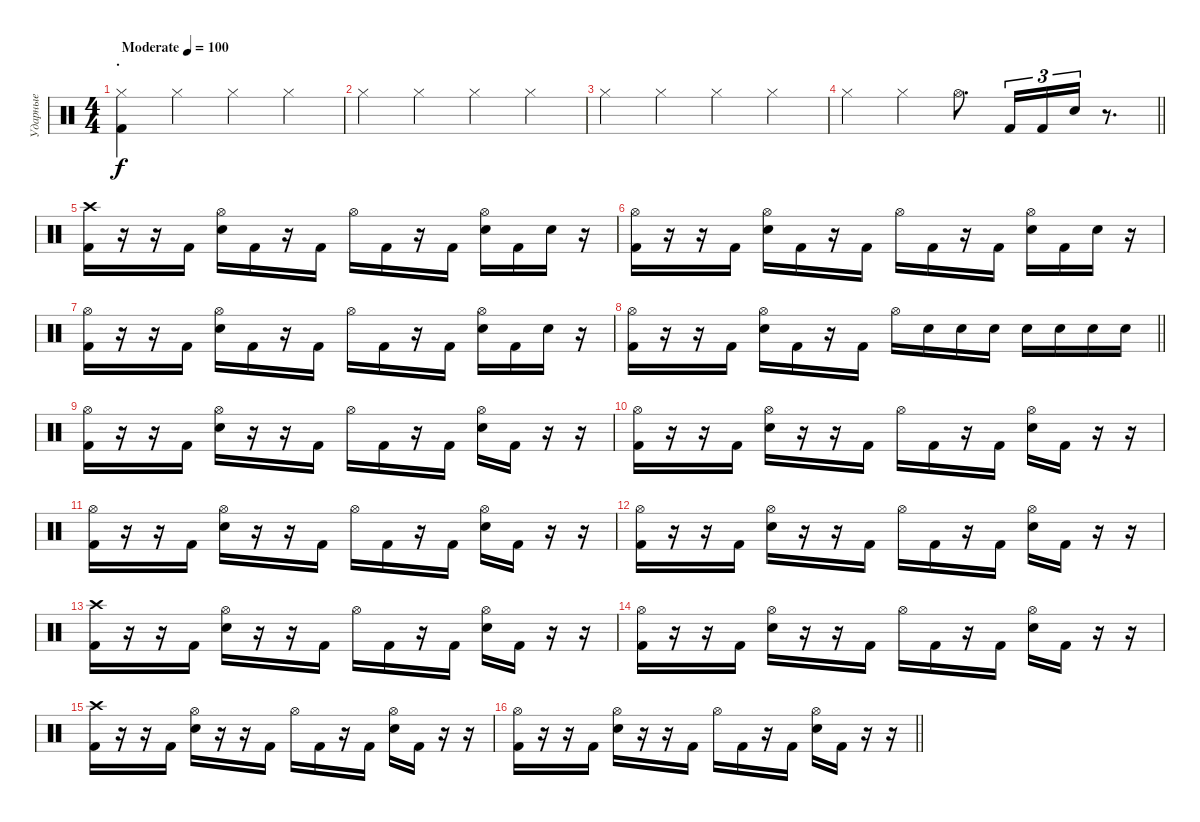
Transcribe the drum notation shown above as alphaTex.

\track ("Ударные" "Ударные") {instrument percussion}
\staff {score}
\articulation defaults
\ts (4 4)
\section ("" ".")
\tempo (100 "Moderate")
\clef neutral
\ks c
("Hi-Hat (closed)" "Kick (hit) 2").4{dy f} "Hi-Hat (closed)".4 "Hi-Hat (closed)".4 "Hi-Hat (closed)".4 |
"Hi-Hat (closed)".4 "Hi-Hat (closed)".4 "Hi-Hat (closed)".4 "Hi-Hat (closed)".4 |
"Hi-Hat (closed)".4 "Hi-Hat (closed)".4 "Hi-Hat (closed)".4 "Hi-Hat (closed)".4 |
\barLineRight lightlight "Hi-Hat (closed)".4 "Hi-Hat (closed)".4 "Hi-Hat (open)".8{d} "Kick (hit) 2".16{tu (3 2)} "Kick (hit) 2".16{tu (3 2)} "Electric Snare (hit)".16{tu (3 2)}
r.8{d} |
("Crash high (hit)" "Kick (hit) 2").16 r.16 r.16 "Kick (hit) 2".16 ("Hi-Hat (open)" "Electric Snare (hit)").16 "Kick (hit) 2".16 r.16 "Kick (hit) 2".16 "Hi-Hat (open)".16 "Kick (hit) 2".16 r.16 "Kick (hit) 2".16 ("Hi-Hat (open)" "Electric Snare (hit)").16 "Kick (hit) 2".16 "Electric Snare (hit)".16 r.16 |
("Hi-Hat (open)" "Kick (hit) 2").16 r.16 r.16 "Kick (hit) 2".16 ("Hi-Hat (open)" "Electric Snare (hit)").16 "Kick (hit) 2".16 r.16 "Kick (hit) 2".16 "Hi-Hat (open)".16 "Kick (hit) 2".16 r.16 "Kick (hit) 2".16 ("Hi-Hat (open)" "Electric Snare (hit)").16 "Kick (hit) 2".16 "Electric Snare (hit)".16 r.16 |
("Hi-Hat (open)" "Kick (hit) 2").16 r.16 r.16 "Kick (hit) 2".16 ("Hi-Hat (open)" "Electric Snare (hit)").16 "Kick (hit) 2".16 r.16 "Kick (hit) 2".16 "Hi-Hat (open)".16 "Kick (hit) 2".16 r.16 "Kick (hit) 2".16 ("Hi-Hat (open)" "Electric Snare (hit)").16 "Kick (hit) 2".16 "Electric Snare (hit)".16 r.16 |
\barLineRight lightlight
("Hi-Hat (open)" "Kick (hit) 2").16 r.16 r.16 "Kick (hit) 2".16 ("Hi-Hat (open)" "Electric Snare (hit)").16 "Kick (hit) 2".16 r.16 "Kick (hit) 2".16 "Hi-Hat (open)".16 "Electric Snare (hit)".16 "Electric Snare (hit)".16 "Electric Snare (hit)".16 "Electric Snare (hit)".16 "Electric Snare (hit)".16 "Electric Snare (hit)".16 "Electric Snare (hit)".16 |
("Hi-Hat (open)" "Kick (hit) 2").16 r.16 r.16 "Kick (hit) 2".16 ("Hi-Hat (open)" "Electric Snare (hit)").16 r.16 r.16 "Kick (hit) 2".16 "Hi-Hat (open)".16 "Kick (hit) 2".16 r.16 "Kick (hit) 2".16 ("Hi-Hat (open)" "Electric Snare (hit)").16 "Kick (hit) 2".16 r.16 r.16 |
("Hi-Hat (open)" "Kick (hit) 2").16 r.16 r.16 "Kick (hit) 2".16 ("Hi-Hat (open)" "Electric Snare (hit)").16 r.16 r.16 "Kick (hit) 2".16 "Hi-Hat (open)".16 "Kick (hit) 2".16 r.16 "Kick (hit) 2".16 ("Hi-Hat (open)" "Electric Snare (hit)").16 "Kick (hit) 2".16 r.16 r.16 |
("Hi-Hat (open)" "Kick (hit) 2").16 r.16 r.16 "Kick (hit) 2".16 ("Hi-Hat (open)" "Electric Snare (hit)").16 r.16 r.16 "Kick (hit) 2".16 "Hi-Hat (open)".16 "Kick (hit) 2".16 r.16 "Kick (hit) 2".16 ("Hi-Hat (open)" "Electric Snare (hit)").16 "Kick (hit) 2".16 r.16 r.16 |
("Hi-Hat (open)" "Kick (hit) 2").16 r.16 r.16 "Kick (hit) 2".16 ("Hi-Hat (open)" "Electric Snare (hit)").16 r.16 r.16 "Kick (hit) 2".16 "Hi-Hat (open)".16 "Kick (hit) 2".16 r.16 "Kick (hit) 2".16 ("Hi-Hat (open)" "Electric Snare (hit)").16 "Kick (hit) 2".16 r.16 r.16 |
("Crash high (hit)" "Kick (hit) 2").16 r.16 r.16 "Kick (hit) 2".16 ("Hi-Hat (open)" "Electric Snare (hit)").16 r.16 r.16 "Kick (hit) 2".16 "Hi-Hat (open)".16 "Kick (hit) 2".16 r.16 "Kick (hit) 2".16 ("Hi-Hat (open)" "Electric Snare (hit)").16 "Kick (hit) 2".16 r.16 r.16 |
("Hi-Hat (open)" "Kick (hit) 2").16 r.16 r.16 "Kick (hit) 2".16 ("Hi-Hat (open)" "Electric Snare (hit)").16 r.16 r.16 "Kick (hit) 2".16 "Hi-Hat (open)".16 "Kick (hit) 2".16 r.16 "Kick (hit) 2".16 ("Hi-Hat (open)" "Electric Snare (hit)").16 "Kick (hit) 2".16 r.16 r.16 |
("Crash high (hit)" "Kick (hit) 2").16 r.16 r.16 "Kick (hit) 2".16 ("Hi-Hat (open)" "Electric Snare (hit)").16 r.16 r.16 "Kick (hit) 2".16 "Hi-Hat (open)".16 "Kick (hit) 2".16 r.16 "Kick (hit) 2".16 ("Hi-Hat (open)" "Electric Snare (hit)").16 "Kick (hit) 2".16 r.16 r.16 |
\barLineRight lightlight
("Hi-Hat (open)" "Kick (hit) 2").16 r.16 r.16 "Kick (hit) 2".16 ("Hi-Hat (open)" "Electric Snare (hit)").16 r.16 r.16 "Kick (hit) 2".16 "Hi-Hat (open)".16 "Kick (hit) 2".16 r.16 "Kick (hit) 2".16 ("Hi-Hat (open)" "Electric Snare (hit)").16 "Kick (hit) 2".16 r.16 r.16
